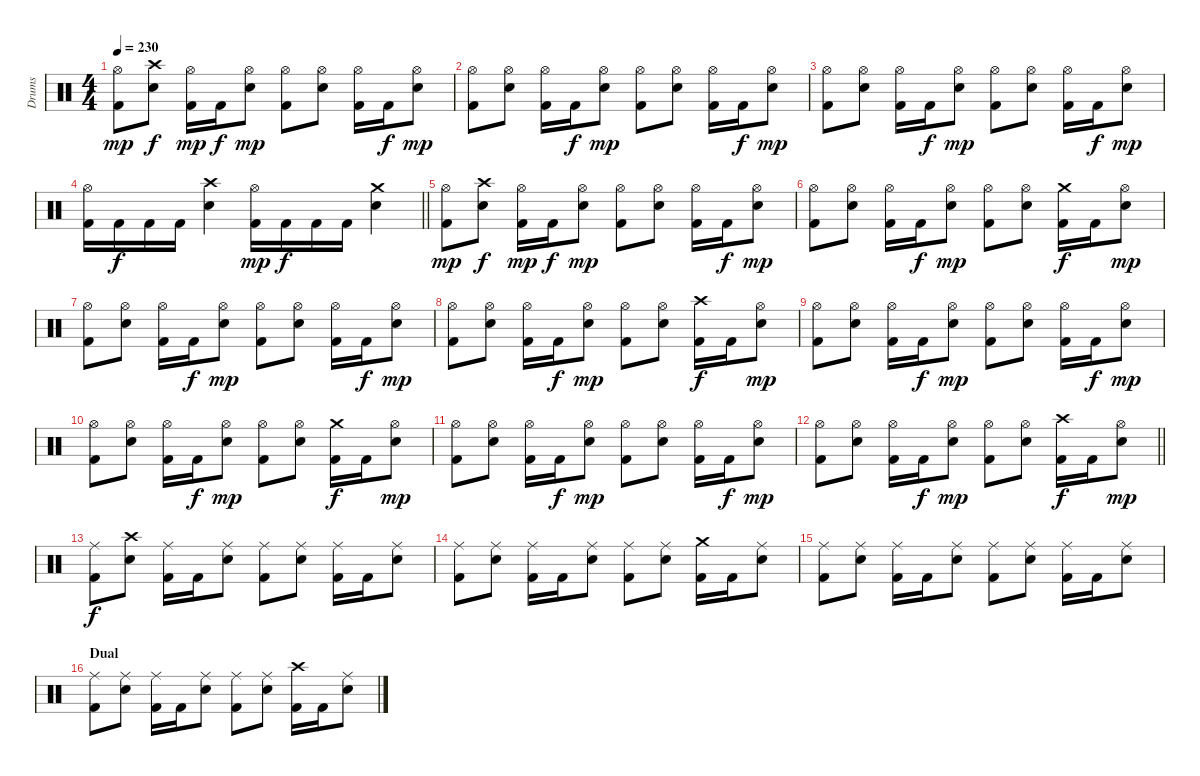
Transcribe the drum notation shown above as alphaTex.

\track ("Drums" "Drums") {instrument percussion}
\staff {score}
\articulation defaults
\ts (4 4)
\section ("" "")
\tempo 230
\clef neutral
\ks c
("Hi-Hat (open)" "Kick (hit) 2").8{dy mp} ("Crash high (hit)" "Snare (hit) 2").8{dy f} ("Hi-Hat (open)" "Kick (hit) 2").16{dy mp} "Kick (hit) 2".16{dy f} ("Hi-Hat (open)" "Snare (hit) 2").8{dy mp} ("Hi-Hat (open)" "Kick (hit) 2").8 ("Hi-Hat (open)" "Snare (hit) 2").8 ("Hi-Hat (open)" "Kick (hit) 2").16 "Kick (hit) 2".16{dy f} ("Hi-Hat (open)" "Snare (hit) 2").8{dy mp} |
("Hi-Hat (open)" "Kick (hit) 2").8 ("Hi-Hat (open)" "Snare (hit) 2").8 ("Hi-Hat (open)" "Kick (hit) 2").16 "Kick (hit) 2".16{dy f} ("Hi-Hat (open)" "Snare (hit) 2").8{dy mp} ("Hi-Hat (open)" "Kick (hit) 2").8 ("Hi-Hat (open)" "Snare (hit) 2").8 ("Hi-Hat (open)" "Kick (hit) 2").16 "Kick (hit) 2".16{dy f} ("Hi-Hat (open)" "Snare (hit) 2").8{dy mp} |
("Hi-Hat (open)" "Kick (hit) 2").8 ("Hi-Hat (open)" "Snare (hit) 2").8 ("Hi-Hat (open)" "Kick (hit) 2").16 "Kick (hit) 2".16{dy f} ("Hi-Hat (open)" "Snare (hit) 2").8{dy mp} ("Hi-Hat (open)" "Kick (hit) 2").8 ("Hi-Hat (open)" "Snare (hit) 2").8 ("Hi-Hat (open)" "Kick (hit) 2").16 "Kick (hit) 2".16{dy f} ("Hi-Hat (open)" "Snare (hit) 2").8{dy mp} |
\barLineRight lightlight
("Hi-Hat (open)" "Kick (hit) 2").16 "Kick (hit) 2".16{dy f} "Kick (hit) 2".16 "Kick (hit) 2".16 ("Crash high (hit)" "Snare (hit) 2").4 ("Hi-Hat (open)" "Kick (hit) 2").16{dy mp} "Kick (hit) 2".16{dy f} "Kick (hit) 2".16 "Kick (hit) 2".16 ("Crash medium (hit)" "Snare (hit) 2").4 |
("Hi-Hat (open)" "Kick (hit) 2").8{dy mp} ("Crash high (hit)" "Snare (hit) 2").8{dy f} ("Hi-Hat (open)" "Kick (hit) 2").16{dy mp} "Kick (hit) 2".16{dy f} ("Hi-Hat (open)" "Snare (hit) 2").8{dy mp} ("Hi-Hat (open)" "Kick (hit) 2").8 ("Hi-Hat (open)" "Snare (hit) 2").8 ("Hi-Hat (open)" "Kick (hit) 2").16 "Kick (hit) 2".16{dy f} ("Hi-Hat (open)" "Snare (hit) 2").8{dy mp} |
("Hi-Hat (open)" "Kick (hit) 2").8 ("Hi-Hat (open)" "Snare (hit) 2").8 ("Hi-Hat (open)" "Kick (hit) 2").16 "Kick (hit) 2".16{dy f} ("Hi-Hat (open)" "Snare (hit) 2").8{dy mp} ("Hi-Hat (open)" "Kick (hit) 2").8 ("Hi-Hat (open)" "Snare (hit) 2").8 ("Crash medium (hit)" "Kick (hit) 2").16{dy f} "Kick (hit) 2".16 ("Hi-Hat (open)" "Snare (hit) 2").8{dy mp} |
("Hi-Hat (open)" "Kick (hit) 2").8 ("Hi-Hat (open)" "Snare (hit) 2").8 ("Hi-Hat (open)" "Kick (hit) 2").16 "Kick (hit) 2".16{dy f} ("Hi-Hat (open)" "Snare (hit) 2").8{dy mp} ("Hi-Hat (open)" "Kick (hit) 2").8 ("Hi-Hat (open)" "Snare (hit) 2").8 ("Hi-Hat (open)" "Kick (hit) 2").16 "Kick (hit) 2".16{dy f} ("Hi-Hat (open)" "Snare (hit) 2").8{dy mp} |
("Hi-Hat (open)" "Kick (hit) 2").8 ("Hi-Hat (open)" "Snare (hit) 2").8 ("Hi-Hat (open)" "Kick (hit) 2").16 "Kick (hit) 2".16{dy f} ("Hi-Hat (open)" "Snare (hit) 2").8{dy mp} ("Hi-Hat (open)" "Kick (hit) 2").8 ("Hi-Hat (open)" "Snare (hit) 2").8 ("Crash high (hit)" "Kick (hit) 2").16{dy f} "Kick (hit) 2".16 ("Hi-Hat (open)" "Snare (hit) 2").8{dy mp} |
("Hi-Hat (open)" "Kick (hit) 2").8 ("Hi-Hat (open)" "Snare (hit) 2").8 ("Hi-Hat (open)" "Kick (hit) 2").16 "Kick (hit) 2".16{dy f} ("Hi-Hat (open)" "Snare (hit) 2").8{dy mp} ("Hi-Hat (open)" "Kick (hit) 2").8 ("Hi-Hat (open)" "Snare (hit) 2").8 ("Hi-Hat (open)" "Kick (hit) 2").16 "Kick (hit) 2".16{dy f} ("Hi-Hat (open)" "Snare (hit) 2").8{dy mp} |
("Hi-Hat (open)" "Kick (hit) 2").8 ("Hi-Hat (open)" "Snare (hit) 2").8 ("Hi-Hat (open)" "Kick (hit) 2").16 "Kick (hit) 2".16{dy f} ("Hi-Hat (open)" "Snare (hit) 2").8{dy mp} ("Hi-Hat (open)" "Kick (hit) 2").8 ("Hi-Hat (open)" "Snare (hit) 2").8 ("Crash medium (hit)" "Kick (hit) 2").16{dy f} "Kick (hit) 2".16 ("Hi-Hat (open)" "Snare (hit) 2").8{dy mp} |
("Hi-Hat (open)" "Kick (hit) 2").8 ("Hi-Hat (open)" "Snare (hit) 2").8 ("Hi-Hat (open)" "Kick (hit) 2").16 "Kick (hit) 2".16{dy f} ("Hi-Hat (open)" "Snare (hit) 2").8{dy mp} ("Hi-Hat (open)" "Kick (hit) 2").8 ("Hi-Hat (open)" "Snare (hit) 2").8 ("Hi-Hat (open)" "Kick (hit) 2").16 "Kick (hit) 2".16{dy f} ("Hi-Hat (open)" "Snare (hit) 2").8{dy mp} |
\barLineRight lightlight
("Hi-Hat (open)" "Kick (hit) 2").8 ("Hi-Hat (open)" "Snare (hit) 2").8 ("Hi-Hat (open)" "Kick (hit) 2").16 "Kick (hit) 2".16{dy f} ("Hi-Hat (open)" "Snare (hit) 2").8{dy mp} ("Hi-Hat (open)" "Kick (hit) 2").8 ("Hi-Hat (open)" "Snare (hit) 2").8 ("Crash high (hit)" "Kick (hit) 2").16{dy f} "Kick (hit) 2".16 ("Hi-Hat (open)" "Snare (hit) 2").8{dy mp} |
("Ride (middle)" "Kick (hit) 2").8{dy f} ("Crash high (hit)" "Snare (hit) 2").8 ("Ride (middle)" "Kick (hit) 2").16 "Kick (hit) 2".16 ("Ride (middle)" "Snare (hit) 2").8 ("Ride (middle)" "Kick (hit) 2").8 ("Ride (middle)" "Snare (hit) 2").8 ("Ride (middle)" "Kick (hit) 2").16 "Kick (hit) 2".16 ("Ride (middle)" "Snare (hit) 2").8 |
("Ride (middle)" "Kick (hit) 2").8 ("Ride (middle)" "Snare (hit) 2").8 ("Ride (middle)" "Kick (hit) 2").16 "Kick (hit) 2".16 ("Ride (middle)" "Snare (hit) 2").8 ("Ride (middle)" "Kick (hit) 2").8 ("Ride (middle)" "Snare (hit) 2").8 ("Crash medium (hit)" "Kick (hit) 2").16 "Kick (hit) 2".16 ("Ride (middle)" "Snare (hit) 2").8 |
("Ride (middle)" "Kick (hit) 2").8 ("Ride (middle)" "Snare (hit) 2").8 ("Ride (middle)" "Kick (hit) 2").16 "Kick (hit) 2".16 ("Ride (middle)" "Snare (hit) 2").8 ("Ride (middle)" "Kick (hit) 2").8 ("Ride (middle)" "Snare (hit) 2").8 ("Ride (middle)" "Kick (hit) 2").16 "Kick (hit) 2".16 ("Ride (middle)" "Snare (hit) 2").8 |
\section ("" "Dual")
("Ride (middle)" "Kick (hit) 2").8 ("Ride (middle)" "Snare (hit) 2").8 ("Ride (middle)" "Kick (hit) 2").16 "Kick (hit) 2".16 ("Ride (middle)" "Snare (hit) 2").8 ("Ride (middle)" "Kick (hit) 2").8 ("Ride (middle)" "Snare (hit) 2").8 ("Crash high (hit)" "Kick (hit) 2").16 "Kick (hit) 2".16 ("Ride (middle)" "Snare (hit) 2").8
